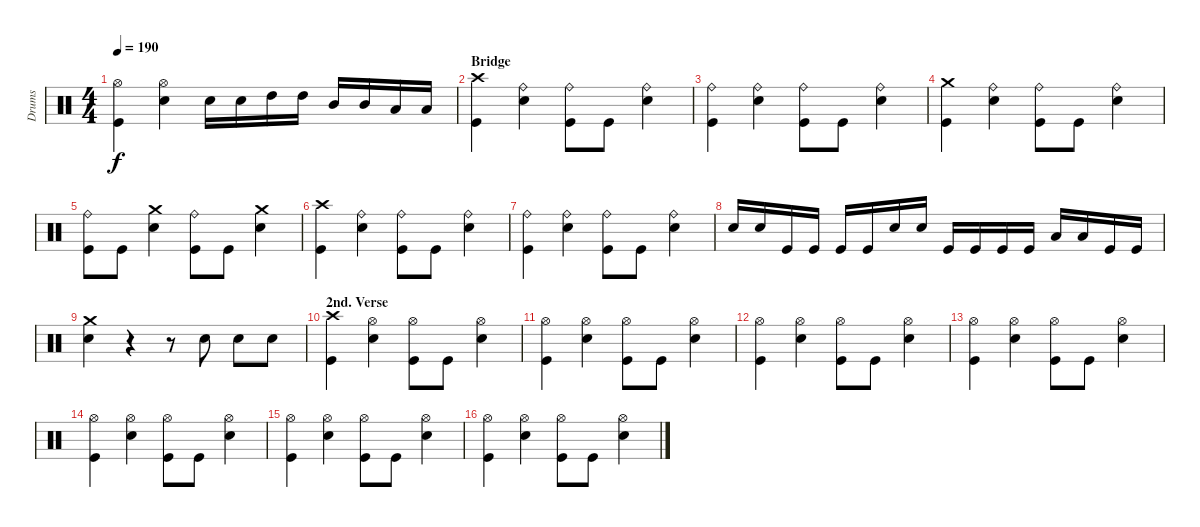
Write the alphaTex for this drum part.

\track ("Drums" "Drums") {instrument percussion}
\staff {score}
\articulation defaults
\ts (4 4)
\tempo 190
\clef neutral
\ks c
("Hi-Hat (open)" "Kick (hit)").4{dy f} ("Hi-Hat (open)" "Electric Snare (hit)").4 "Electric Snare (hit)".16 "Electric Snare (hit)".16 "High Tom (hit)".16 "High Tom (hit)".16 "Mid Tom (hit)".16 "Mid Tom (hit)".16 "Low Tom (hit)".16 "Low Tom (hit)".16 |
\section ("" "Bridge")
("Crash high (hit)" "Kick (hit)").4 ("Ride (bell)" "Electric Snare (hit)").4 ("Ride (bell)" "Kick (hit)").8 "Kick (hit)".8 ("Ride (bell)" "Electric Snare (hit)").4 |
("Ride (bell)" "Kick (hit)").4 ("Ride (bell)" "Electric Snare (hit)").4 ("Ride (bell)" "Kick (hit)").8 "Kick (hit)".8 ("Ride (bell)" "Electric Snare (hit)").4 |
("Crash medium (hit)" "Kick (hit)").4 ("Ride (bell)" "Electric Snare (hit)").4 ("Ride (bell)" "Kick (hit)").8 "Kick (hit)".8 ("Ride (bell)" "Electric Snare (hit)").4 |
("Ride (bell)" "Kick (hit)").8 "Kick (hit)".8 ("Crash medium (hit)" "Electric Snare (hit)").4 ("Ride (bell)" "Kick (hit)").8 "Kick (hit)".8 ("Crash medium (hit)" "Electric Snare (hit)").4 |
("Crash high (hit)" "Kick (hit)").4 ("Ride (bell)" "Electric Snare (hit)").4 ("Ride (bell)" "Kick (hit)").8 "Kick (hit)".8 ("Ride (bell)" "Electric Snare (hit)").4 |
("Ride (bell)" "Kick (hit)").4 ("Ride (bell)" "Electric Snare (hit)").4 ("Ride (bell)" "Kick (hit)").8 "Kick (hit)".8 ("Ride (bell)" "Electric Snare (hit)").4 |
"Electric Snare (hit)".16 "Electric Snare (hit)".16 "Kick (hit)".16 "Kick (hit)".16 "Kick (hit)".16 "Kick (hit)".16 "Electric Snare (hit)".16 "Electric Snare (hit)".16 "Kick (hit)".16 "Kick (hit)".16 "Kick (hit)".16 "Kick (hit)".16 "Low Tom (hit)".16 "Low Tom (hit)".16 "Kick (hit)".16 "Kick (hit)".16 |
("Crash medium (hit)" "Electric Snare (hit)").4 r.4 r.8 "Electric Snare (hit)".8 "Electric Snare (hit)".8 "Electric Snare (hit)".8 |
\section ("" "2nd. Verse")
("Crash high (hit)" "Kick (hit)").4 ("Hi-Hat (open)" "Electric Snare (hit)").4 ("Hi-Hat (open)" "Kick (hit)").8 "Kick (hit)".8 ("Hi-Hat (open)" "Electric Snare (hit)").4 |
("Hi-Hat (open)" "Kick (hit)").4 ("Hi-Hat (open)" "Electric Snare (hit)").4 ("Hi-Hat (open)" "Kick (hit)").8 "Kick (hit)".8 ("Hi-Hat (open)" "Electric Snare (hit)").4 |
("Hi-Hat (open)" "Kick (hit)").4 ("Hi-Hat (open)" "Electric Snare (hit)").4 ("Hi-Hat (open)" "Kick (hit)").8 "Kick (hit)".8 ("Hi-Hat (open)" "Electric Snare (hit)").4 |
("Hi-Hat (open)" "Kick (hit)").4 ("Hi-Hat (open)" "Electric Snare (hit)").4 ("Hi-Hat (open)" "Kick (hit)").8 "Kick (hit)".8 ("Hi-Hat (open)" "Electric Snare (hit)").4 |
("Hi-Hat (open)" "Kick (hit)").4 ("Hi-Hat (open)" "Electric Snare (hit)").4 ("Hi-Hat (open)" "Kick (hit)").8 "Kick (hit)".8 ("Hi-Hat (open)" "Electric Snare (hit)").4 |
("Hi-Hat (open)" "Kick (hit)").4 ("Hi-Hat (open)" "Electric Snare (hit)").4 ("Hi-Hat (open)" "Kick (hit)").8 "Kick (hit)".8 ("Hi-Hat (open)" "Electric Snare (hit)").4 |
("Hi-Hat (open)" "Kick (hit)").4 ("Hi-Hat (open)" "Electric Snare (hit)").4 ("Hi-Hat (open)" "Kick (hit)").8 "Kick (hit)".8 ("Hi-Hat (open)" "Electric Snare (hit)").4
